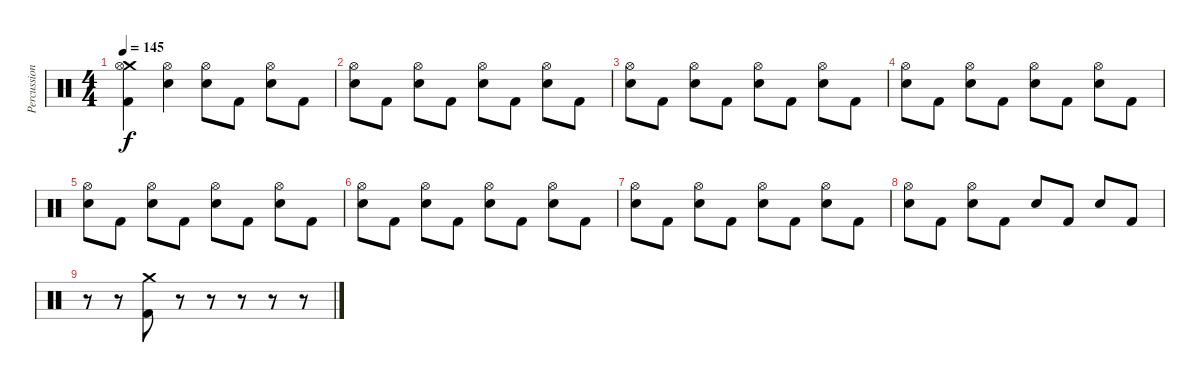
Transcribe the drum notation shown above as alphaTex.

\track ("Percussion" "Percussion") {instrument percussion}
\staff {score}
\articulation defaults
\ts (4 4)
\tempo 145
\clef neutral
\ks c
("Crash medium (hit)" "Hi-Hat (open)" "Kick (hit) 2").4{dy f} ("Hi-Hat (open)" "Electric Snare (hit)").4 ("Hi-Hat (open)" "Electric Snare (hit)").8 "Kick (hit) 2".8 ("Hi-Hat (open)" "Electric Snare (hit)").8 "Kick (hit) 2".8 |
("Hi-Hat (open)" "Electric Snare (hit)").8 "Kick (hit) 2".8 ("Hi-Hat (open)" "Electric Snare (hit)").8 "Kick (hit) 2".8 ("Hi-Hat (open)" "Electric Snare (hit)").8 "Kick (hit) 2".8 ("Hi-Hat (open)" "Electric Snare (hit)").8 "Kick (hit) 2".8 |
("Hi-Hat (open)" "Electric Snare (hit)").8 "Kick (hit) 2".8 ("Hi-Hat (open)" "Electric Snare (hit)").8 "Kick (hit) 2".8 ("Hi-Hat (open)" "Electric Snare (hit)").8 "Kick (hit) 2".8 ("Hi-Hat (open)" "Electric Snare (hit)").8 "Kick (hit) 2".8 |
("Hi-Hat (open)" "Electric Snare (hit)").8 "Kick (hit) 2".8 ("Hi-Hat (open)" "Electric Snare (hit)").8 "Kick (hit) 2".8 ("Hi-Hat (open)" "Electric Snare (hit)").8 "Kick (hit) 2".8 ("Hi-Hat (open)" "Electric Snare (hit)").8 "Kick (hit) 2".8 |
("Hi-Hat (open)" "Electric Snare (hit)").8 "Kick (hit) 2".8 ("Hi-Hat (open)" "Electric Snare (hit)").8 "Kick (hit) 2".8 ("Hi-Hat (open)" "Electric Snare (hit)").8 "Kick (hit) 2".8 ("Hi-Hat (open)" "Electric Snare (hit)").8 "Kick (hit) 2".8 |
("Hi-Hat (open)" "Electric Snare (hit)").8 "Kick (hit) 2".8 ("Hi-Hat (open)" "Electric Snare (hit)").8 "Kick (hit) 2".8 ("Hi-Hat (open)" "Electric Snare (hit)").8 "Kick (hit) 2".8 ("Hi-Hat (open)" "Electric Snare (hit)").8 "Kick (hit) 2".8 |
("Hi-Hat (open)" "Electric Snare (hit)").8 "Kick (hit) 2".8 ("Hi-Hat (open)" "Electric Snare (hit)").8 "Kick (hit) 2".8 ("Hi-Hat (open)" "Electric Snare (hit)").8 "Kick (hit) 2".8 ("Hi-Hat (open)" "Electric Snare (hit)").8 "Kick (hit) 2".8 |
("Hi-Hat (open)" "Electric Snare (hit)").8 "Kick (hit) 2".8 ("Hi-Hat (open)" "Electric Snare (hit)").8 "Kick (hit) 2".8 "Electric Snare (hit)".8 "Kick (hit) 2".8 "Electric Snare (hit)".8 "Kick (hit) 2".8 |
r.8 r.8 ("Crash medium (hit)" "Kick (hit) 2").8 r.8 r.8 r.8 r.8 r.8
